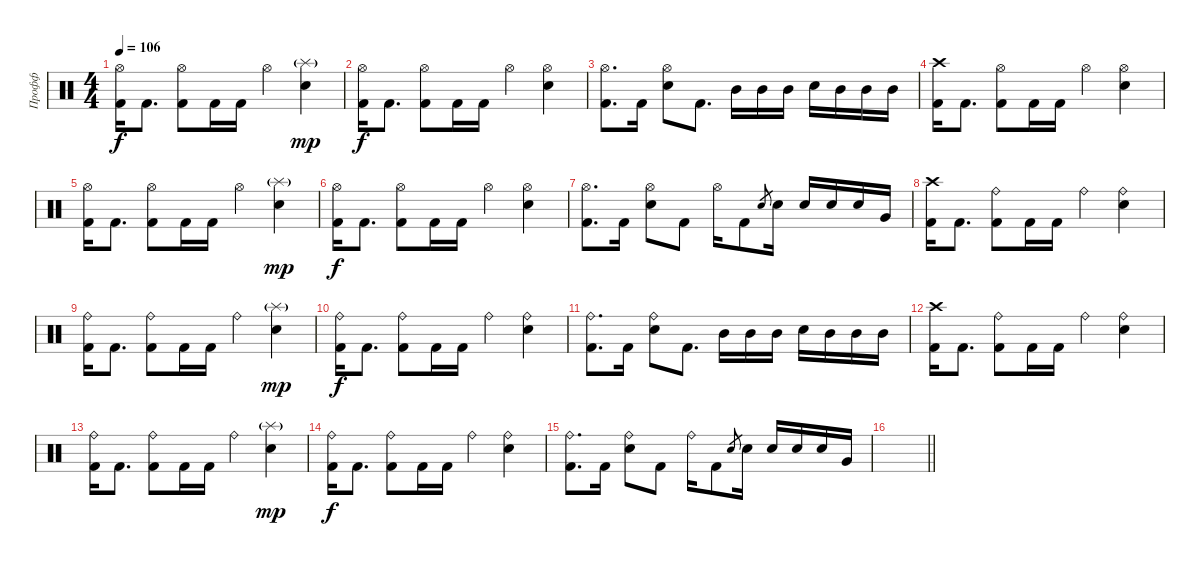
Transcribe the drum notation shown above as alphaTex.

\track ("Профф" "Профф") {instrument percussion}
\staff {score}
\articulation defaults
\ts (4 4)
\tempo 106
\clef neutral
\ks c
("Hi-Hat (open)" "Kick (hit) 2").16{dy f} "Kick (hit) 2".8{d} ("Hi-Hat (open)" "Kick (hit) 2").8 "Kick (hit) 2".16 "Kick (hit) 2".16 "Hi-Hat (open)".4 ("Splash (hit)"{g} "Snare (hit) 2").4{dy mp} |
("Hi-Hat (open)" "Kick (hit) 2").16{dy f} "Kick (hit) 2".8{d} ("Hi-Hat (open)" "Kick (hit) 2").8 "Kick (hit) 2".16 "Kick (hit) 2".16 "Hi-Hat (open)".4 ("Hi-Hat (open)" "Snare (hit) 2").4 |
("Hi-Hat (open)" "Kick (hit) 2").8{d} "Kick (hit) 2".16 ("Hi-Hat (open)" "Snare (hit) 2").8 "Kick (hit) 2".8{d} "Mid Tom (hit)".16 "Mid Tom (hit)".16 "Mid Tom (hit)".16 "Snare (hit) 2".16 "Mid Tom (hit)".16 "Mid Tom (hit)".16 "Mid Tom (hit)".16 |
("Crash high (hit)" "Kick (hit) 2").16 "Kick (hit) 2".8{d} ("Hi-Hat (open)" "Kick (hit) 2").8 "Kick (hit) 2".16 "Kick (hit) 2".16 "Hi-Hat (open)".4 ("Hi-Hat (open)" "Snare (hit) 2").4 |
("Hi-Hat (open)" "Kick (hit) 2").16 "Kick (hit) 2".8{d} ("Hi-Hat (open)" "Kick (hit) 2").8 "Kick (hit) 2".16 "Kick (hit) 2".16 "Hi-Hat (open)".4 ("Splash (hit)"{g} "Snare (hit) 2").4{dy mp} |
("Hi-Hat (open)" "Kick (hit) 2").16{dy f} "Kick (hit) 2".8{d} ("Hi-Hat (open)" "Kick (hit) 2").8 "Kick (hit) 2".16 "Kick (hit) 2".16 "Hi-Hat (open)".4 ("Hi-Hat (open)" "Snare (hit) 2").4 |
("Hi-Hat (open)" "Kick (hit) 2").8{d} "Kick (hit) 2".16 ("Hi-Hat (open)" "Snare (hit) 2").8 "Kick (hit) 2".8 "Hi-Hat (open)".16 "Kick (hit) 2".8 "Snare (hit) 2".8{gr} "Snare (hit) 2".16 "Snare (hit) 2".16 "Snare (hit) 2".16 "Snare (hit) 2".16 "Very Low Tom (hit)".16 |
("Crash high (hit)" "Kick (hit) 2").16 "Kick (hit) 2".8{d} ("Ride (bell)" "Kick (hit) 2").8 "Kick (hit) 2".16 "Kick (hit) 2".16 "Ride (bell)".4 ("Ride (bell)" "Snare (hit) 2").4 |
("Ride (bell)" "Kick (hit) 2").16 "Kick (hit) 2".8{d} ("Ride (bell)" "Kick (hit) 2").8 "Kick (hit) 2".16 "Kick (hit) 2".16 "Ride (bell)".4 ("Splash (hit)"{g} "Snare (hit) 2").4{dy mp} |
("Ride (bell)" "Kick (hit) 2").16{dy f} "Kick (hit) 2".8{d} ("Ride (bell)" "Kick (hit) 2").8 "Kick (hit) 2".16 "Kick (hit) 2".16 "Ride (bell)".4 ("Ride (bell)" "Snare (hit) 2").4 |
("Ride (bell)" "Kick (hit) 2").8{d} "Kick (hit) 2".16 ("Ride (bell)" "Snare (hit) 2").8 "Kick (hit) 2".8{d} "Mid Tom (hit)".16 "Mid Tom (hit)".16 "Mid Tom (hit)".16 "Snare (hit) 2".16 "Mid Tom (hit)".16 "Mid Tom (hit)".16 "Mid Tom (hit)".16 |
("Crash high (hit)" "Kick (hit) 2").16 "Kick (hit) 2".8{d} ("Ride (bell)" "Kick (hit) 2").8 "Kick (hit) 2".16 "Kick (hit) 2".16 "Ride (bell)".4 ("Ride (bell)" "Snare (hit) 2").4 |
("Ride (bell)" "Kick (hit) 2").16 "Kick (hit) 2".8{d} ("Ride (bell)" "Kick (hit) 2").8 "Kick (hit) 2".16 "Kick (hit) 2".16 "Ride (bell)".4 ("Splash (hit)"{g} "Snare (hit) 2").4{dy mp} |
("Ride (bell)" "Kick (hit) 2").16{dy f} "Kick (hit) 2".8{d} ("Ride (bell)" "Kick (hit) 2").8 "Kick (hit) 2".16 "Kick (hit) 2".16 "Ride (bell)".4 ("Ride (bell)" "Snare (hit) 2").4 |
("Ride (bell)" "Kick (hit) 2").8{d} "Kick (hit) 2".16 ("Ride (bell)" "Snare (hit) 2").8 "Kick (hit) 2".8 "Ride (bell)".16 "Kick (hit) 2".8 "Snare (hit) 2".8{gr} "Snare (hit) 2".16 "Snare (hit) 2".16 "Snare (hit) 2".16 "Snare (hit) 2".16 "Very Low Tom (hit)".16 |
\barLineRight lightlight
